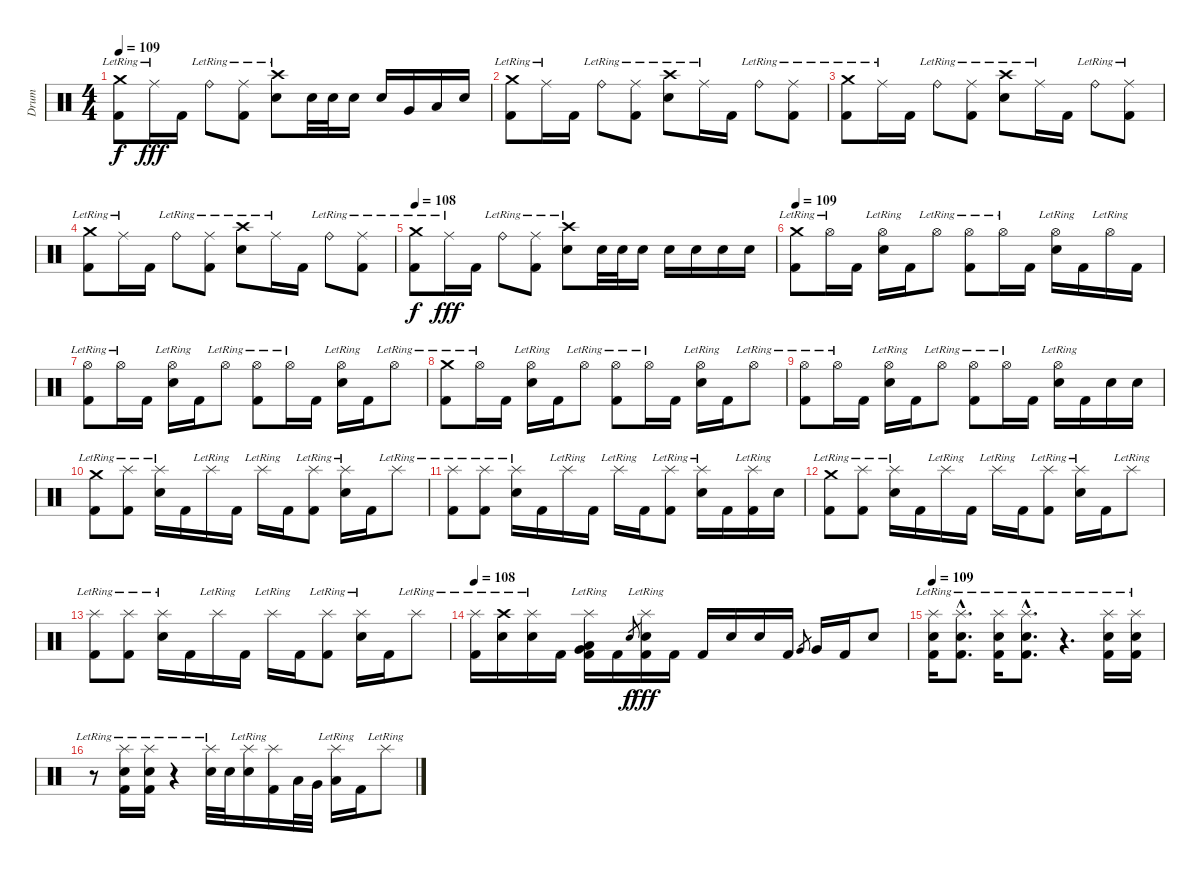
\track ("Drum" "Drum") {instrument percussion}
\staff {score}
\articulation defaults
\ts (4 4)
\tempo 109
\clef neutral
\ks c
("Crash medium (hit)"{lr} "Kick (hit) 2").8{dy f} "Ride (middle)"{lr}.16{dy fff} "Kick (hit) 2".16 "Ride (bell)"{lr}.8 ("Ride (middle)"{lr} "Kick (hit) 2").8 ("Crash high (hit)"{lr} "Electric Snare (hit)").8 "Electric Snare (hit)".32 "Electric Snare (hit)".32 "Electric Snare (hit)".16 "Electric Snare (hit)".16 "Very Low Tom (hit)".16 "Low Floor Tom (hit)".16 "Electric Snare (hit)".16 |
("Crash medium (hit)"{lr} "Kick (hit) 2").8 "Ride (middle)"{lr}.16 "Kick (hit) 2".16 "Ride (bell)"{lr}.8 ("Ride (middle)"{lr} "Kick (hit) 2").8 ("Crash high (hit)"{lr} "Electric Snare (hit)").8 "Ride (middle)"{lr}.16 "Kick (hit) 2".16 "Ride (bell)"{lr}.8 ("Ride (middle)"{lr} "Kick (hit) 2").8 |
("Crash medium (hit)"{lr} "Kick (hit) 2").8 "Ride (middle)"{lr}.16 "Kick (hit) 2".16 "Ride (bell)"{lr}.8 ("Ride (middle)"{lr} "Kick (hit) 2").8 ("Crash high (hit)"{lr} "Electric Snare (hit)").8 "Ride (middle)"{lr}.16 "Kick (hit) 2".16 "Ride (bell)"{lr}.8 ("Ride (middle)"{lr} "Kick (hit) 2").8 |
("Crash medium (hit)"{lr} "Kick (hit) 2").8 "Ride (middle)"{lr}.16 "Kick (hit) 2".16 "Ride (bell)"{lr}.8 ("Ride (middle)"{lr} "Kick (hit) 2").8 ("Crash high (hit)"{lr} "Electric Snare (hit)").8 "Ride (middle)"{lr}.16 "Kick (hit) 2".16 "Ride (bell)"{lr}.8 ("Ride (middle)"{lr} "Kick (hit) 2").8 |
\tempo 108
("Crash medium (hit)"{lr} "Kick (hit) 2").8{dy f} "Ride (middle)"{lr}.16{dy fff} "Kick (hit) 2".16 "Ride (bell)"{lr}.8 ("Ride (middle)"{lr} "Kick (hit) 2").8 ("Crash high (hit)"{lr} "Electric Snare (hit)").8 "Electric Snare (hit)".32 "Electric Snare (hit)".32 "Electric Snare (hit)".16 "Electric Snare (hit)".16 "Electric Snare (hit)".16 "Electric Snare (hit)".16 "Electric Snare (hit)".16 |
\tempo 109
("Crash medium (hit)"{lr} "Kick (hit) 2").8 "Hi-Hat (open)"{lr}.16 "Kick (hit) 2".16 ("Hi-Hat (open)"{lr} "Electric Snare (hit)").16 "Kick (hit) 2".16 "Hi-Hat (open)"{lr}.8 ("Hi-Hat (open)"{lr} "Kick (hit) 2").8 "Hi-Hat (open)"{lr}.16 "Kick (hit) 2".16 ("Hi-Hat (open)"{lr} "Electric Snare (hit)").16 "Kick (hit) 2".16 "Hi-Hat (open)"{lr}.16 "Kick (hit) 2".16 |
("Hi-Hat (open)"{lr} "Kick (hit) 2").8 "Hi-Hat (open)"{lr}.16 "Kick (hit) 2".16 ("Hi-Hat (open)"{lr} "Electric Snare (hit)").16 "Kick (hit) 2".16 "Hi-Hat (open)"{lr}.8 ("Hi-Hat (open)"{lr} "Kick (hit) 2").8 "Hi-Hat (open)"{lr}.16 "Kick (hit) 2".16 ("Hi-Hat (open)"{lr} "Electric Snare (hit)").16 "Kick (hit) 2".16 "Hi-Hat (open)"{lr}.8 |
("Crash medium (hit)"{lr} "Kick (hit) 2").8 "Hi-Hat (open)"{lr}.16 "Kick (hit) 2".16 ("Hi-Hat (open)"{lr} "Electric Snare (hit)").16 "Kick (hit) 2".16 "Hi-Hat (open)"{lr}.8 ("Hi-Hat (open)"{lr} "Kick (hit) 2").8 "Hi-Hat (open)"{lr}.16 "Kick (hit) 2".16 ("Hi-Hat (open)"{lr} "Electric Snare (hit)").16 "Kick (hit) 2".16 "Hi-Hat (open)"{lr}.8 |
("Hi-Hat (open)"{lr} "Kick (hit) 2").8 "Hi-Hat (open)"{lr}.16 "Kick (hit) 2".16 ("Hi-Hat (open)"{lr} "Electric Snare (hit)").16 "Kick (hit) 2".16 "Hi-Hat (open)"{lr}.8 ("Hi-Hat (open)"{lr} "Kick (hit) 2").8 "Hi-Hat (open)"{lr}.16 "Kick (hit) 2".16 ("Hi-Hat (open)"{lr} "Electric Snare (hit)").16 "Kick (hit) 2".16 "Electric Snare (hit)".16 "Electric Snare (hit)".16 |
("Crash medium (hit)"{lr} "Kick (hit) 2").8 ("Splash (hit)"{lr} "Kick (hit) 2").8 ("Splash (hit)"{lr} "Electric Snare (hit)").16 "Kick (hit) 2".16 "Splash (hit)"{lr}.16 "Kick (hit) 2".16 "Splash (hit)"{lr}.16 "Kick (hit) 2".16 ("Splash (hit)"{lr} "Kick (hit) 2").8 ("Splash (hit)"{lr} "Electric Snare (hit)").16 "Kick (hit) 2".16 "Splash (hit)"{lr}.8 |
("Splash (hit)"{lr} "Kick (hit) 2").8 ("Splash (hit)"{lr} "Kick (hit) 2").8 ("Splash (hit)"{lr} "Electric Snare (hit)").16 "Kick (hit) 2".16 "Splash (hit)"{lr}.16 "Kick (hit) 2".16 "Splash (hit)"{lr}.16 "Kick (hit) 2".16 ("Splash (hit)"{lr} "Kick (hit) 2").8 ("Splash (hit)"{lr} "Electric Snare (hit)").16 "Kick (hit) 2".16 ("Splash (hit)"{lr} "Kick (hit) 2").16 "Electric Snare (hit)".16 |
("Crash medium (hit)"{lr} "Kick (hit) 2").8 ("Splash (hit)"{lr} "Kick (hit) 2").8 ("Splash (hit)"{lr} "Electric Snare (hit)").16 "Kick (hit) 2".16 "Splash (hit)"{lr}.16 "Kick (hit) 2".16 "Splash (hit)"{lr}.16 "Kick (hit) 2".16 ("Splash (hit)"{lr} "Kick (hit) 2").8 ("Splash (hit)"{lr} "Electric Snare (hit)").16 "Kick (hit) 2".16 "Splash (hit)"{lr}.8 |
("Splash (hit)"{lr} "Kick (hit) 2").8 ("Splash (hit)"{lr} "Kick (hit) 2").8 ("Splash (hit)"{lr} "Electric Snare (hit)").16 "Kick (hit) 2".16 "Splash (hit)"{lr}.16 "Kick (hit) 2".16 "Splash (hit)"{lr}.16 "Kick (hit) 2".16 ("Splash (hit)"{lr} "Kick (hit) 2").8 ("Splash (hit)"{lr} "Electric Snare (hit)").16 "Kick (hit) 2".16 "Splash (hit)"{lr}.8 |
\tempo 108
("Splash (hit)"{lr} "Kick (hit) 2").16 ("Crash high (hit)"{lr} "Electric Snare (hit)").16 ("Splash (hit)"{lr} "Electric Snare (hit)").16 "Kick (hit) 2".16 ("Splash (hit)"{lr} "Low Floor Tom (hit)" "Very Low Tom (hit)" "Kick (hit) 2").16 "Kick (hit) 2".16 "Electric Snare (hit)".8{gr dy f} ("Splash (hit)"{lr} "Electric Snare (hit)" "Kick (hit) 2").16{dy fff} "Kick (hit) 2".16 "Kick (hit) 2".16 "Electric Snare (hit)".16 "Electric Snare (hit)".16 "Kick (hit) 2".16 "Very Low Tom (hit)".8{gr} "Very Low Tom (hit)".16 "Kick (hit) 2".16 "Electric Snare (hit)".8 |
\tempo 109
("Splash (hit)"{lr} "Electric Snare (hit)" "Kick (hit) 2").16 ("Splash (hit)"{hac lr} "Electric Snare (hit)"{hac} "Kick (hit) 2"{hac}).8{d} ("Splash (hit)"{lr} "Electric Snare (hit)" "Kick (hit) 2").16 ("Splash (hit)"{hac lr} "Electric Snare (hit)"{hac} "Kick (hit) 2"{hac}).8{d} r.4{d} ("Splash (hit)"{lr} "Electric Snare (hit)" "Kick (hit) 2").16 ("Splash (hit)"{lr} "Electric Snare (hit)" "Kick (hit) 2").16 |
r.8 ("Splash (hit)"{lr} "Electric Snare (hit)" "Kick (hit) 2").16 ("Splash (hit)"{lr} "Electric Snare (hit)" "Kick (hit) 2").16 r.4 ("Splash (hit)"{lr} "Electric Snare (hit)").32 "Electric Snare (hit)".32 ("Splash (hit)"{lr} "Electric Snare (hit)").16 ("Splash (hit)"{lr} "Kick (hit) 2").16 "Low Tom (hit)".32 "Very Low Tom (hit)".32 ("Splash (hit)"{lr} "Low Floor Tom (hit)").16 "Kick (hit) 2".16 "Splash (hit)"{lr}.8
